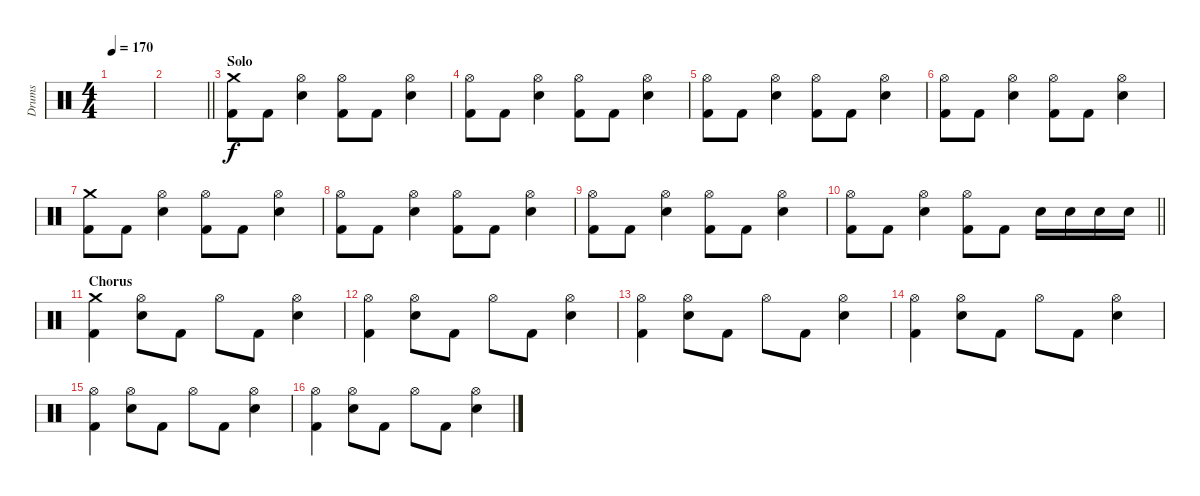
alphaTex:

\track ("Drums" "Drums") {instrument percussion}
\staff {score}
\articulation defaults
\ts (4 4)
\tempo 170
\clef neutral
\ks c
|
\barLineRight lightlight
|
\section ("" "Solo")
("Crash medium (hit)" "Kick (hit) 2").8 "Kick (hit) 2".8 ("Hi-Hat (open)" "Electric Snare (hit)").4 ("Hi-Hat (open)" "Kick (hit) 2").8 "Kick (hit) 2".8 ("Hi-Hat (open)" "Electric Snare (hit)").4 |
("Hi-Hat (open)" "Kick (hit) 2").8 "Kick (hit) 2".8 ("Hi-Hat (open)" "Electric Snare (hit)").4 ("Hi-Hat (open)" "Kick (hit) 2").8 "Kick (hit) 2".8 ("Hi-Hat (open)" "Electric Snare (hit)").4 |
("Hi-Hat (open)" "Kick (hit) 2").8 "Kick (hit) 2".8 ("Hi-Hat (open)" "Electric Snare (hit)").4 ("Hi-Hat (open)" "Kick (hit) 2").8 "Kick (hit) 2".8 ("Hi-Hat (open)" "Electric Snare (hit)").4 |
("Hi-Hat (open)" "Kick (hit) 2").8 "Kick (hit) 2".8 ("Hi-Hat (open)" "Electric Snare (hit)").4 ("Hi-Hat (open)" "Kick (hit) 2").8 "Kick (hit) 2".8 ("Hi-Hat (open)" "Electric Snare (hit)").4 |
("Crash medium (hit)" "Kick (hit) 2").8 "Kick (hit) 2".8 ("Hi-Hat (open)" "Electric Snare (hit)").4 ("Hi-Hat (open)" "Kick (hit) 2").8 "Kick (hit) 2".8 ("Hi-Hat (open)" "Electric Snare (hit)").4 |
("Hi-Hat (open)" "Kick (hit) 2").8 "Kick (hit) 2".8 ("Hi-Hat (open)" "Electric Snare (hit)").4 ("Hi-Hat (open)" "Kick (hit) 2").8 "Kick (hit) 2".8 ("Hi-Hat (open)" "Electric Snare (hit)").4 |
("Hi-Hat (open)" "Kick (hit) 2").8 "Kick (hit) 2".8 ("Hi-Hat (open)" "Electric Snare (hit)").4 ("Hi-Hat (open)" "Kick (hit) 2").8 "Kick (hit) 2".8 ("Hi-Hat (open)" "Electric Snare (hit)").4 |
\barLineRight lightlight
("Hi-Hat (open)" "Kick (hit) 2").8 "Kick (hit) 2".8 ("Hi-Hat (open)" "Electric Snare (hit)").4 ("Hi-Hat (open)" "Kick (hit) 2").8 "Kick (hit) 2".8 "Electric Snare (hit)".16 "Electric Snare (hit)".16 "Electric Snare (hit)".16 "Electric Snare (hit)".16 |
\section ("" "Chorus")
("Crash medium (hit)" "Kick (hit) 2").4 ("Hi-Hat (open)" "Electric Snare (hit)").8 "Kick (hit) 2".8 "Hi-Hat (open)".8 "Kick (hit) 2".8 ("Hi-Hat (open)" "Electric Snare (hit)").4 |
("Hi-Hat (open)" "Kick (hit) 2").4 ("Hi-Hat (open)" "Electric Snare (hit)").8 "Kick (hit) 2".8 "Hi-Hat (open)".8 "Kick (hit) 2".8 ("Hi-Hat (open)" "Electric Snare (hit)").4 |
("Hi-Hat (open)" "Kick (hit) 2").4 ("Hi-Hat (open)" "Electric Snare (hit)").8 "Kick (hit) 2".8 "Hi-Hat (open)".8 "Kick (hit) 2".8 ("Hi-Hat (open)" "Electric Snare (hit)").4 |
("Hi-Hat (open)" "Kick (hit) 2").4 ("Hi-Hat (open)" "Electric Snare (hit)").8 "Kick (hit) 2".8 "Hi-Hat (open)".8 "Kick (hit) 2".8 ("Hi-Hat (open)" "Electric Snare (hit)").4 |
("Hi-Hat (open)" "Kick (hit) 2").4 ("Hi-Hat (open)" "Electric Snare (hit)").8 "Kick (hit) 2".8 "Hi-Hat (open)".8 "Kick (hit) 2".8 ("Hi-Hat (open)" "Electric Snare (hit)").4 |
("Hi-Hat (open)" "Kick (hit) 2").4 ("Hi-Hat (open)" "Electric Snare (hit)").8 "Kick (hit) 2".8 "Hi-Hat (open)".8 "Kick (hit) 2".8 ("Hi-Hat (open)" "Electric Snare (hit)").4
